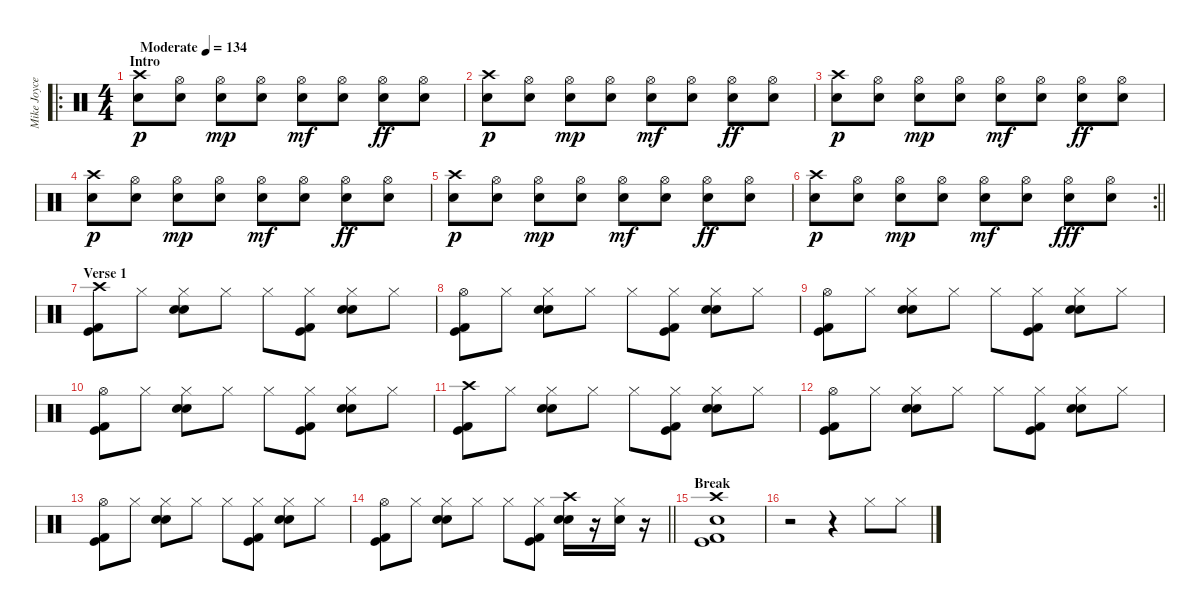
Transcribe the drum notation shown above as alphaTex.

\track ("Mike Joyce" "Mike Joyce") {instrument percussion}
\staff {score}
\articulation defaults
\ro
\ts (4 4)
\section ("" "Intro")
\tempo (134 "Moderate")
\clef neutral
\ks c
("Crash high (hit)" "Snare (hit) 2").8{bd 480 dy p} ("Hi-Hat (open)" "Snare (hit) 2").8 ("Hi-Hat (open)" "Snare (hit) 2").8{dy mp} ("Hi-Hat (open)" "Snare (hit) 2").8 ("Hi-Hat (open)" "Snare (hit) 2").8{dy mf} ("Hi-Hat (open)" "Snare (hit) 2").8 ("Hi-Hat (open)" "Snare (hit) 2").8{dy ff} ("Hi-Hat (open)" "Snare (hit) 2").8 |
("Crash high (hit)" "Snare (hit) 2").8{bd 480 dy p} ("Hi-Hat (open)" "Snare (hit) 2").8 ("Hi-Hat (open)" "Snare (hit) 2").8{dy mp} ("Hi-Hat (open)" "Snare (hit) 2").8 ("Hi-Hat (open)" "Snare (hit) 2").8{dy mf} ("Hi-Hat (open)" "Snare (hit) 2").8 ("Hi-Hat (open)" "Snare (hit) 2").8{dy ff} ("Hi-Hat (open)" "Snare (hit) 2").8 |
("Crash high (hit)" "Snare (hit) 2").8{bd 480 dy p} ("Hi-Hat (open)" "Snare (hit) 2").8 ("Hi-Hat (open)" "Snare (hit) 2").8{dy mp} ("Hi-Hat (open)" "Snare (hit) 2").8 ("Hi-Hat (open)" "Snare (hit) 2").8{dy mf} ("Hi-Hat (open)" "Snare (hit) 2").8 ("Hi-Hat (open)" "Snare (hit) 2").8{dy ff} ("Hi-Hat (open)" "Snare (hit) 2").8 |
("Crash high (hit)" "Snare (hit) 2").8{bd 480 dy p} ("Hi-Hat (open)" "Snare (hit) 2").8 ("Hi-Hat (open)" "Snare (hit) 2").8{dy mp} ("Hi-Hat (open)" "Snare (hit) 2").8 ("Hi-Hat (open)" "Snare (hit) 2").8{dy mf} ("Hi-Hat (open)" "Snare (hit) 2").8 ("Hi-Hat (open)" "Snare (hit) 2").8{dy ff} ("Hi-Hat (open)" "Snare (hit) 2").8 |
("Crash high (hit)" "Snare (hit) 2").8{bd 480 dy p} ("Hi-Hat (open)" "Snare (hit) 2").8 ("Hi-Hat (open)" "Snare (hit) 2").8{dy mp} ("Hi-Hat (open)" "Snare (hit) 2").8 ("Hi-Hat (open)" "Snare (hit) 2").8{dy mf} ("Hi-Hat (open)" "Snare (hit) 2").8 ("Hi-Hat (open)" "Snare (hit) 2").8{dy ff} ("Hi-Hat (open)" "Snare (hit) 2").8 |
\rc 2
\barLineRight lightlight
("Crash high (hit)" "Snare (hit) 2").8{bd 480 dy p} ("Hi-Hat (open)" "Snare (hit) 2").8 ("Hi-Hat (open)" "Snare (hit) 2").8{dy mp} ("Hi-Hat (open)" "Snare (hit) 2").8 ("Hi-Hat (open)" "Snare (hit) 2").8{dy mf} ("Hi-Hat (open)" "Snare (hit) 2").8 ("Hi-Hat (open)" "Snare (hit) 2").8{dy fff} ("Hi-Hat (open)" "Snare (hit) 2").8 |
\section ("" "Verse 1")
("Crash high (hit)" "Kick (hit) 2" "Kick (hit)").8 "Hi-Hat (closed)".8 ("Hi-Hat (closed)" "Electric Snare (hit)" "Snare (hit) 2").8 "Hi-Hat (closed)".8 "Hi-Hat (closed)".8 ("Hi-Hat (closed)" "Kick (hit) 2" "Kick (hit)").8 ("Hi-Hat (closed)" "Electric Snare (hit)" "Snare (hit) 2").8 "Hi-Hat (closed)".8 |
("Hi-Hat (open)" "Kick (hit) 2" "Kick (hit)").8 "Hi-Hat (closed)".8 ("Hi-Hat (closed)" "Electric Snare (hit)" "Snare (hit) 2").8 "Hi-Hat (closed)".8 "Hi-Hat (closed)".8 ("Hi-Hat (closed)" "Kick (hit) 2" "Kick (hit)").8 ("Hi-Hat (closed)" "Electric Snare (hit)" "Snare (hit) 2").8 "Hi-Hat (closed)".8 |
("Hi-Hat (open)" "Kick (hit) 2" "Kick (hit)").8 "Hi-Hat (closed)".8 ("Hi-Hat (closed)" "Electric Snare (hit)" "Snare (hit) 2").8 "Hi-Hat (closed)".8 "Hi-Hat (closed)".8 ("Hi-Hat (closed)" "Kick (hit) 2" "Kick (hit)").8 ("Hi-Hat (closed)" "Electric Snare (hit)" "Snare (hit) 2").8 "Hi-Hat (closed)".8 |
("Hi-Hat (open)" "Kick (hit) 2" "Kick (hit)").8 "Hi-Hat (closed)".8 ("Hi-Hat (closed)" "Electric Snare (hit)" "Snare (hit) 2").8 "Hi-Hat (closed)".8 "Hi-Hat (closed)".8 ("Hi-Hat (closed)" "Kick (hit) 2" "Kick (hit)").8 ("Hi-Hat (closed)" "Electric Snare (hit)" "Snare (hit) 2").8 "Hi-Hat (closed)".8 |
("Crash high (hit)" "Kick (hit) 2" "Kick (hit)").8 "Hi-Hat (closed)".8 ("Hi-Hat (closed)" "Electric Snare (hit)" "Snare (hit) 2").8 "Hi-Hat (closed)".8 "Hi-Hat (closed)".8 ("Hi-Hat (closed)" "Kick (hit) 2" "Kick (hit)").8 ("Hi-Hat (closed)" "Electric Snare (hit)" "Snare (hit) 2").8 "Hi-Hat (closed)".8 |
("Hi-Hat (open)" "Kick (hit) 2" "Kick (hit)").8 "Hi-Hat (closed)".8 ("Hi-Hat (closed)" "Electric Snare (hit)" "Snare (hit) 2").8 "Hi-Hat (closed)".8 "Hi-Hat (closed)".8 ("Hi-Hat (closed)" "Kick (hit) 2" "Kick (hit)").8 ("Hi-Hat (closed)" "Electric Snare (hit)" "Snare (hit) 2").8 "Hi-Hat (closed)".8 |
("Hi-Hat (open)" "Kick (hit) 2" "Kick (hit)").8 "Hi-Hat (closed)".8 ("Hi-Hat (closed)" "Electric Snare (hit)" "Snare (hit) 2").8 "Hi-Hat (closed)".8 "Hi-Hat (closed)".8 ("Hi-Hat (closed)" "Kick (hit) 2" "Kick (hit)").8 ("Hi-Hat (closed)" "Electric Snare (hit)" "Snare (hit) 2").8 "Hi-Hat (closed)".8 |
\barLineRight lightlight
("Hi-Hat (open)" "Kick (hit) 2" "Kick (hit)").8 "Hi-Hat (closed)".8 ("Hi-Hat (closed)" "Electric Snare (hit)" "Snare (hit) 2").8 "Hi-Hat (closed)".8 "Hi-Hat (closed)".8 ("Hi-Hat (closed)" "Kick (hit) 2" "Kick (hit)").8 ("Crash high (hit)" "Electric Snare (hit)" "Snare (hit) 2").16 r.16 ("Hi-Hat (closed)" "Snare (hit) 2").16 r.16 |
\section ("" "Break")
("Crash high (hit)" "Snare (hit) 2" "Kick (hit)" "Kick (hit) 2").1 |
r.2 r.4 "Hi-Hat (closed)".8 "Hi-Hat (closed)".8
